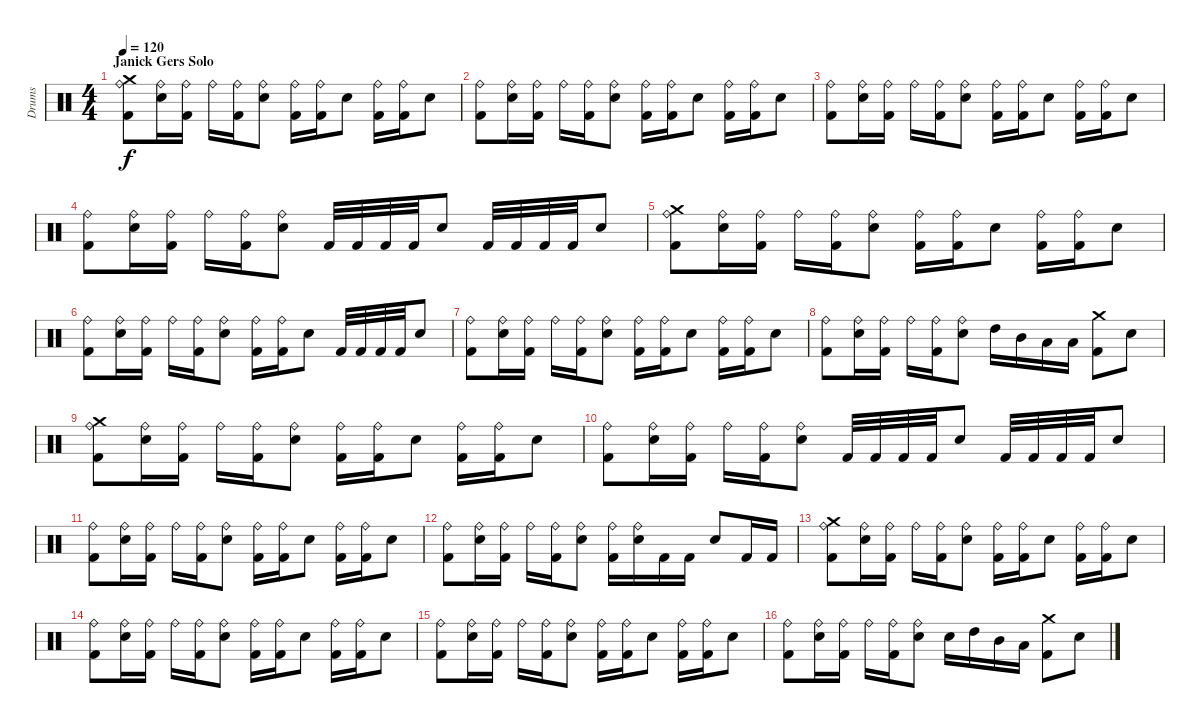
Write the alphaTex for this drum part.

\track ("Drums" "Drums") {instrument percussion}
\staff {score}
\articulation defaults
\ts (4 4)
\section ("" "Janick Gers Solo")
\tempo 120
\clef neutral
\ks c
("Crash medium (hit)" "Kick (hit) 2" "Ride (bell)").8{dy f} ("Snare (hit) 2" "Ride (bell)").16 ("Kick (hit) 2" "Ride (bell)").16 "Ride (bell)".16 ("Kick (hit) 2" "Ride (bell)").16 ("Snare (hit) 2" "Ride (bell)").8 ("Kick (hit) 2" "Ride (bell)").16 ("Kick (hit) 2" "Ride (bell)").16 "Snare (hit) 2".8 ("Kick (hit) 2" "Ride (bell)").16 ("Kick (hit) 2" "Ride (bell)").16 "Snare (hit) 2".8 |
("Kick (hit) 2" "Ride (bell)").8 ("Snare (hit) 2" "Ride (bell)").16 ("Kick (hit) 2" "Ride (bell)").16 "Ride (bell)".16 ("Kick (hit) 2" "Ride (bell)").16 ("Snare (hit) 2" "Ride (bell)").8 ("Kick (hit) 2" "Ride (bell)").16 ("Kick (hit) 2" "Ride (bell)").16 "Snare (hit) 2".8 ("Kick (hit) 2" "Ride (bell)").16 ("Kick (hit) 2" "Ride (bell)").16 "Snare (hit) 2".8 |
("Kick (hit) 2" "Ride (bell)").8 ("Snare (hit) 2" "Ride (bell)").16 ("Kick (hit) 2" "Ride (bell)").16 "Ride (bell)".16 ("Kick (hit) 2" "Ride (bell)").16 ("Snare (hit) 2" "Ride (bell)").8 ("Kick (hit) 2" "Ride (bell)").16 ("Kick (hit) 2" "Ride (bell)").16 "Snare (hit) 2".8 ("Kick (hit) 2" "Ride (bell)").16 ("Kick (hit) 2" "Ride (bell)").16 "Snare (hit) 2".8 |
("Kick (hit) 2" "Ride (bell)").8 ("Snare (hit) 2" "Ride (bell)").16 ("Kick (hit) 2" "Ride (bell)").16 "Ride (bell)".16 ("Kick (hit) 2" "Ride (bell)").16 ("Snare (hit) 2" "Ride (bell)").8 "Kick (hit) 2".32 "Kick (hit) 2".32 "Kick (hit) 2".32 "Kick (hit) 2".32 "Snare (hit) 2".8 "Kick (hit) 2".32 "Kick (hit) 2".32 "Kick (hit) 2".32 "Kick (hit) 2".32 "Snare (hit) 2".8 |
("Crash medium (hit)" "Kick (hit) 2" "Ride (bell)").8 ("Snare (hit) 2" "Ride (bell)").16 ("Kick (hit) 2" "Ride (bell)").16 "Ride (bell)".16 ("Kick (hit) 2" "Ride (bell)").16 ("Snare (hit) 2" "Ride (bell)").8 ("Kick (hit) 2" "Ride (bell)").16 ("Kick (hit) 2" "Ride (bell)").16 "Snare (hit) 2".8 ("Kick (hit) 2" "Ride (bell)").16 ("Kick (hit) 2" "Ride (bell)").16 "Snare (hit) 2".8 |
("Kick (hit) 2" "Ride (bell)").8 ("Snare (hit) 2" "Ride (bell)").16 ("Kick (hit) 2" "Ride (bell)").16 "Ride (bell)".16 ("Kick (hit) 2" "Ride (bell)").16 ("Snare (hit) 2" "Ride (bell)").8 ("Kick (hit) 2" "Ride (bell)").16 ("Kick (hit) 2" "Ride (bell)").16 "Snare (hit) 2".8 "Kick (hit) 2".32 "Kick (hit) 2".32 "Kick (hit) 2".32 "Kick (hit) 2".32 "Snare (hit) 2".8 |
("Kick (hit) 2" "Ride (bell)").8 ("Snare (hit) 2" "Ride (bell)").16 ("Kick (hit) 2" "Ride (bell)").16 "Ride (bell)".16 ("Kick (hit) 2" "Ride (bell)").16 ("Snare (hit) 2" "Ride (bell)").8 ("Kick (hit) 2" "Ride (bell)").16 ("Kick (hit) 2" "Ride (bell)").16 "Snare (hit) 2".8 ("Kick (hit) 2" "Ride (bell)").16 ("Kick (hit) 2" "Ride (bell)").16 "Snare (hit) 2".8 |
("Kick (hit) 2" "Ride (bell)").8 ("Snare (hit) 2" "Ride (bell)").16 ("Kick (hit) 2" "Ride (bell)").16 "Ride (bell)".16 ("Kick (hit) 2" "Ride (bell)").16 ("Snare (hit) 2" "Ride (bell)").8 "High Tom (hit)".16 "Mid Tom (hit)".16 "Low Tom (hit)".16 "Low Tom (hit)".16 ("Crash medium (hit)" "Kick (hit) 2").8 "Snare (hit) 2".8 |
("Crash medium (hit)" "Kick (hit) 2" "Ride (bell)").8 ("Snare (hit) 2" "Ride (bell)").16 ("Kick (hit) 2" "Ride (bell)").16 "Ride (bell)".16 ("Kick (hit) 2" "Ride (bell)").16 ("Snare (hit) 2" "Ride (bell)").8 ("Kick (hit) 2" "Ride (bell)").16 ("Kick (hit) 2" "Ride (bell)").16 "Snare (hit) 2".8 ("Kick (hit) 2" "Ride (bell)").16 ("Kick (hit) 2" "Ride (bell)").16 "Snare (hit) 2".8 |
("Kick (hit) 2" "Ride (bell)").8 ("Snare (hit) 2" "Ride (bell)").16 ("Kick (hit) 2" "Ride (bell)").16 "Ride (bell)".16 ("Kick (hit) 2" "Ride (bell)").16 ("Snare (hit) 2" "Ride (bell)").8 "Kick (hit) 2".32 "Kick (hit) 2".32 "Kick (hit) 2".32 "Kick (hit) 2".32 "Snare (hit) 2".8 "Kick (hit) 2".32 "Kick (hit) 2".32 "Kick (hit) 2".32 "Kick (hit) 2".32 "Snare (hit) 2".8 |
("Kick (hit) 2" "Ride (bell)").8 ("Snare (hit) 2" "Ride (bell)").16 ("Kick (hit) 2" "Ride (bell)").16 "Ride (bell)".16 ("Kick (hit) 2" "Ride (bell)").16 ("Snare (hit) 2" "Ride (bell)").8 ("Kick (hit) 2" "Ride (bell)").16 ("Kick (hit) 2" "Ride (bell)").16 "Snare (hit) 2".8 ("Kick (hit) 2" "Ride (bell)").16 ("Kick (hit) 2" "Ride (bell)").16 "Snare (hit) 2".8 |
("Kick (hit) 2" "Ride (bell)").8 ("Snare (hit) 2" "Ride (bell)").16 ("Kick (hit) 2" "Ride (bell)").16 "Ride (bell)".16 ("Kick (hit) 2" "Ride (bell)").16 ("Snare (hit) 2" "Ride (bell)").8 ("Kick (hit) 2" "Ride (bell)").16 ("Snare (hit) 2" "Ride (bell)").16 "Kick (hit) 2".16 "Kick (hit) 2".16 "Snare (hit) 2".8 "Kick (hit) 2".16 "Kick (hit) 2".16 |
("Crash medium (hit)" "Kick (hit) 2" "Ride (bell)").8 ("Snare (hit) 2" "Ride (bell)").16 ("Kick (hit) 2" "Ride (bell)").16 "Ride (bell)".16 ("Kick (hit) 2" "Ride (bell)").16 ("Snare (hit) 2" "Ride (bell)").8 ("Kick (hit) 2" "Ride (bell)").16 ("Kick (hit) 2" "Ride (bell)").16 "Snare (hit) 2".8 ("Kick (hit) 2" "Ride (bell)").16 ("Kick (hit) 2" "Ride (bell)").16 "Snare (hit) 2".8 |
("Kick (hit) 2" "Ride (bell)").8 ("Snare (hit) 2" "Ride (bell)").16 ("Kick (hit) 2" "Ride (bell)").16 "Ride (bell)".16 ("Kick (hit) 2" "Ride (bell)").16 ("Snare (hit) 2" "Ride (bell)").8 ("Kick (hit) 2" "Ride (bell)").16 ("Kick (hit) 2" "Ride (bell)").16 "Snare (hit) 2".8 ("Kick (hit) 2" "Ride (bell)").16 ("Kick (hit) 2" "Ride (bell)").16 "Snare (hit) 2".8 |
("Kick (hit) 2" "Ride (bell)").8 ("Snare (hit) 2" "Ride (bell)").16 ("Kick (hit) 2" "Ride (bell)").16 "Ride (bell)".16 ("Kick (hit) 2" "Ride (bell)").16 ("Snare (hit) 2" "Ride (bell)").8 ("Kick (hit) 2" "Ride (bell)").16 ("Kick (hit) 2" "Ride (bell)").16 "Snare (hit) 2".8 ("Kick (hit) 2" "Ride (bell)").16 ("Kick (hit) 2" "Ride (bell)").16 "Snare (hit) 2".8 |
("Kick (hit) 2" "Ride (bell)").8 ("Snare (hit) 2" "Ride (bell)").16 ("Kick (hit) 2" "Ride (bell)").16 "Ride (bell)".16 ("Kick (hit) 2" "Ride (bell)").16 ("Snare (hit) 2" "Ride (bell)").8 "Snare (hit) 2".16 "High Tom (hit)".16 "Mid Tom (hit)".16 "Low Tom (hit)".16 ("Crash medium (hit)" "Kick (hit) 2").8 "Snare (hit) 2".8
